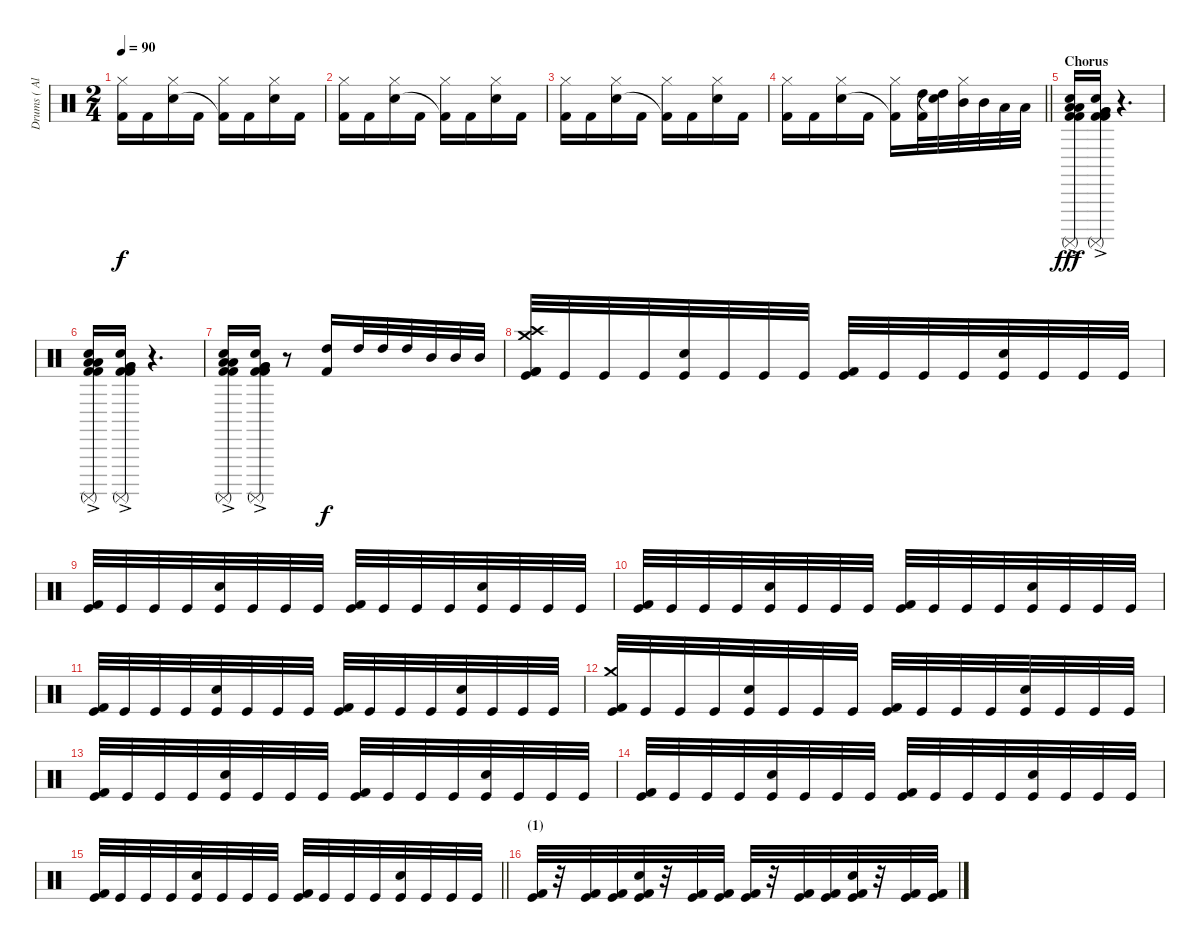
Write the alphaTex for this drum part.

\track ("Drums ( Alex Holzwarth)" "Drums ( Al") {instrument percussion}
\staff {score}
\articulation defaults
\ts (2 4)
\tempo 90
\clef neutral
\ks c
("Hi-Hat (closed)" "Kick (hit) 2").16{dy f} "Kick (hit) 2".16 ("Hi-Hat (closed)" "Electric Snare (hit)").16 "Kick (hit) 2".16 ("Hi-Hat (closed)" "Kick (hit) 2"{t}).16 "Kick (hit) 2".16 ("Hi-Hat (closed)" "Electric Snare (hit)").16 "Kick (hit) 2".16 |
("Hi-Hat (closed)" "Kick (hit) 2").16 "Kick (hit) 2".16 ("Hi-Hat (closed)" "Electric Snare (hit)").16 "Kick (hit) 2".16 ("Hi-Hat (closed)" "Kick (hit) 2"{t}).16 "Kick (hit) 2".16 ("Hi-Hat (closed)" "Electric Snare (hit)").16 "Kick (hit) 2".16 |
("Hi-Hat (closed)" "Kick (hit) 2").16 "Kick (hit) 2".16 ("Hi-Hat (closed)" "Electric Snare (hit)").16 "Kick (hit) 2".16 ("Hi-Hat (closed)" "Kick (hit) 2"{t}).16 "Kick (hit) 2".16 ("Hi-Hat (closed)" "Electric Snare (hit)").16 "Kick (hit) 2".16 |
\barLineRight lightlight
("Hi-Hat (closed)" "Kick (hit) 2").16 "Kick (hit) 2".16 ("Hi-Hat (closed)" "Electric Snare (hit)").16 "Kick (hit) 2".16 ("Hi-Hat (closed)" "Kick (hit) 2"{t}).16 ("High Tom (hit)" "Kick (hit) 2").32 ("High Tom (hit)" "Snare (hit)"{t}).32 ("Hi-Hat (closed)" "Mid Tom (hit)").32 "Mid Tom (hit)".32 "Low Tom (hit)".32 "Low Tom (hit)".32 |
\section ("" "Chorus")
("Surdo (mute)"{ac} "Low Tom (hit)"{ac} "Low Tom (hit)"{ac} "Snare (hit) 2" "Kick (hit) 2"{ac} "Kick (hit) 2"{ac}).16{dy fff} ("Surdo (mute)"{ac} "Very Low Tom (hit)"{ac} "Very Low Tom (hit)"{ac} "Snare (hit) 2" "Kick (hit) 2"{ac} "Kick (hit) 2"{ac}).16 r.4{d} |
("Surdo (mute)"{ac} "Low Tom (hit)"{ac} "Low Tom (hit)"{ac} "Snare (hit) 2" "Kick (hit) 2"{ac} "Kick (hit) 2"{ac}).16 ("Surdo (mute)"{ac} "Very Low Tom (hit)"{ac} "Very Low Tom (hit)"{ac} "Snare (hit) 2" "Kick (hit) 2"{ac} "Kick (hit) 2"{ac}).16 r.4{d} |
("Surdo (mute)"{ac} "Low Tom (hit)"{ac} "Low Tom (hit)"{ac} "Snare (hit) 2" "Kick (hit) 2"{ac} "Kick (hit) 2"{ac}).16 ("Surdo (mute)"{ac} "Very Low Tom (hit)"{ac} "Very Low Tom (hit)"{ac} "Snare (hit) 2" "Kick (hit) 2"{ac} "Kick (hit) 2"{ac}).16 r.8 ("High Tom (hit)" "Kick (hit) 2").16{dy f} "High Tom (hit)".32 "High Tom (hit)".32 "High Tom (hit)".32 "Mid Tom (hit)".32 "Mid Tom (hit)".32 "Mid Tom (hit)".32 |
("Crash high (hit)" "Crash medium (hit)" "Kick (hit) 2" "Kick (hit) 2" "Kick (hit)").32 "Kick (hit)".32 "Kick (hit)".32 "Kick (hit)".32 ("Snare (hit) 2" "Kick (hit)").32 "Kick (hit)".32 "Kick (hit)".32 "Kick (hit)".32 ("Kick (hit) 2" "Kick (hit)").32 "Kick (hit)".32 "Kick (hit)".32 "Kick (hit)".32 ("Snare (hit) 2" "Kick (hit)").32 "Kick (hit)".32 "Kick (hit)".32 "Kick (hit)".32 |
("Kick (hit) 2" "Kick (hit)").32 "Kick (hit)".32 "Kick (hit)".32 "Kick (hit)".32 ("Snare (hit) 2" "Kick (hit)").32 "Kick (hit)".32 "Kick (hit)".32 "Kick (hit)".32 ("Kick (hit) 2" "Kick (hit)").32 "Kick (hit)".32 "Kick (hit)".32 "Kick (hit)".32 ("Snare (hit) 2" "Kick (hit)").32 "Kick (hit)".32 "Kick (hit)".32 "Kick (hit)".32 |
("Kick (hit) 2" "Kick (hit)").32 "Kick (hit)".32 "Kick (hit)".32 "Kick (hit)".32 ("Snare (hit) 2" "Kick (hit)").32 "Kick (hit)".32 "Kick (hit)".32 "Kick (hit)".32 ("Kick (hit) 2" "Kick (hit)").32 "Kick (hit)".32 "Kick (hit)".32 "Kick (hit)".32 ("Snare (hit) 2" "Kick (hit)").32 "Kick (hit)".32 "Kick (hit)".32 "Kick (hit)".32 |
("Kick (hit) 2" "Kick (hit)").32 "Kick (hit)".32 "Kick (hit)".32 "Kick (hit)".32 ("Snare (hit) 2" "Kick (hit)").32 "Kick (hit)".32 "Kick (hit)".32 "Kick (hit)".32 ("Kick (hit) 2" "Kick (hit)").32 "Kick (hit)".32 "Kick (hit)".32 "Kick (hit)".32 ("Snare (hit) 2" "Kick (hit)").32 "Kick (hit)".32 "Kick (hit)".32 "Kick (hit)".32 |
("Crash medium (hit)" "Kick (hit) 2" "Kick (hit)").32 "Kick (hit)".32 "Kick (hit)".32 "Kick (hit)".32 ("Snare (hit) 2" "Kick (hit)").32 "Kick (hit)".32 "Kick (hit)".32 "Kick (hit)".32 ("Kick (hit) 2" "Kick (hit)").32 "Kick (hit)".32 "Kick (hit)".32 "Kick (hit)".32 ("Snare (hit) 2" "Kick (hit)").32 "Kick (hit)".32 "Kick (hit)".32 "Kick (hit)".32 |
("Kick (hit) 2" "Kick (hit)").32 "Kick (hit)".32 "Kick (hit)".32 "Kick (hit)".32 ("Snare (hit) 2" "Kick (hit)").32 "Kick (hit)".32 "Kick (hit)".32 "Kick (hit)".32 ("Kick (hit) 2" "Kick (hit)").32 "Kick (hit)".32 "Kick (hit)".32 "Kick (hit)".32 ("Snare (hit) 2" "Kick (hit)").32 "Kick (hit)".32 "Kick (hit)".32 "Kick (hit)".32 |
("Kick (hit) 2" "Kick (hit)").32 "Kick (hit)".32 "Kick (hit)".32 "Kick (hit)".32 ("Snare (hit) 2" "Kick (hit)").32 "Kick (hit)".32 "Kick (hit)".32 "Kick (hit)".32 ("Kick (hit) 2" "Kick (hit)").32 "Kick (hit)".32 "Kick (hit)".32 "Kick (hit)".32 ("Snare (hit) 2" "Kick (hit)").32 "Kick (hit)".32 "Kick (hit)".32 "Kick (hit)".32 |
\barLineRight lightlight
("Kick (hit) 2" "Kick (hit)").32 "Kick (hit)".32 "Kick (hit)".32 "Kick (hit)".32 ("Snare (hit) 2" "Kick (hit)").32 "Kick (hit)".32 "Kick (hit)".32 "Kick (hit)".32 ("Kick (hit) 2" "Kick (hit)").32 "Kick (hit)".32 "Kick (hit)".32 "Kick (hit)".32 ("Snare (hit) 2" "Kick (hit)").32 "Kick (hit)".32 "Kick (hit)".32 "Kick (hit)".32 |
\section ("" "(1)")
("Kick (hit) 2" "Kick (hit)").32 r.32 ("Kick (hit) 2" "Kick (hit)").32 ("Kick (hit) 2" "Kick (hit)").32 ("Snare (hit) 2" "Kick (hit) 2" "Kick (hit)").32 r.32 ("Kick (hit) 2" "Kick (hit)").32 ("Kick (hit) 2" "Kick (hit)").32 ("Kick (hit) 2" "Kick (hit)").32 r.32 ("Kick (hit) 2" "Kick (hit)").32 ("Kick (hit) 2" "Kick (hit)").32 ("Snare (hit) 2" "Kick (hit) 2" "Kick (hit)").32 r.32 ("Kick (hit) 2" "Kick (hit)").32 ("Kick (hit) 2" "Kick (hit)").32
